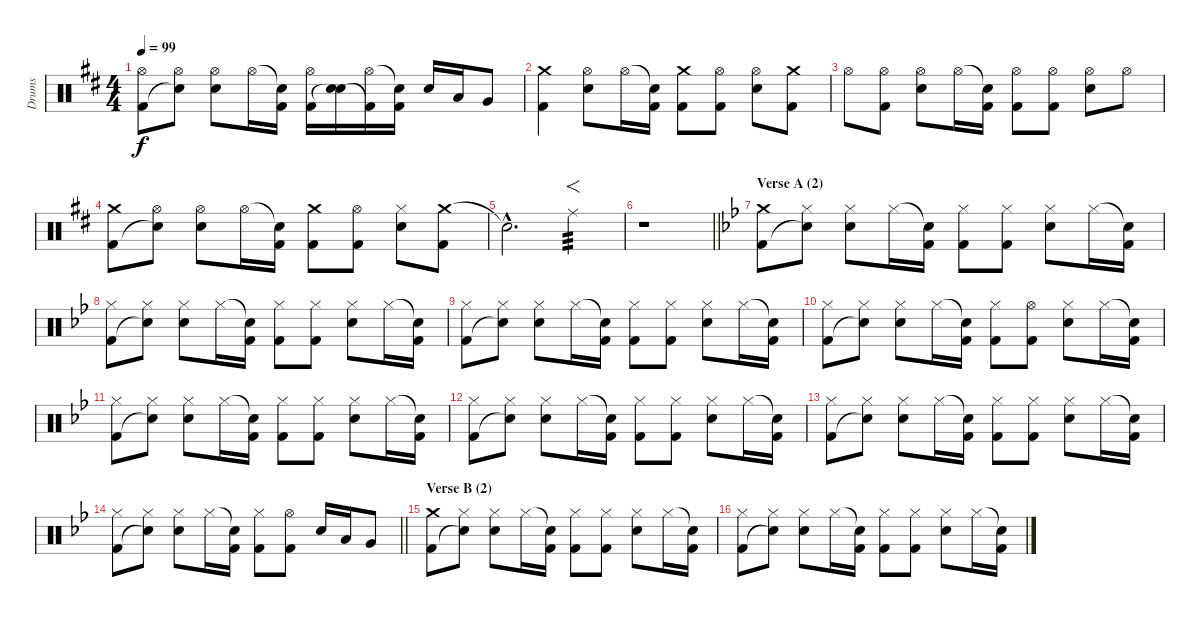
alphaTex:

\track ("Drums" "Drums") {instrument percussion}
\staff {score}
\articulation defaults
\ts (4 4)
\tempo 99
\clef neutral
\ks d
("Hi-Hat (open)" "Kick (hit) 2").8{dy f} ("Hi-Hat (open)" "Snare (hit)"{t}).8 ("Hi-Hat (open)" "Electric Snare (hit)").8 "Hi-Hat (open)".16 ("Snare (hit)"{t} "Kick (hit) 2").16 ("Hi-Hat (open)" "Kick (hit) 2").16 ("Electric Snare (hit)" "Snare (hit)"{t}).16 ("Hi-Hat (open)" "Kick (hit) 2"{t}).16 ("Snare (hit)"{t} "Kick (hit) 2").16 "Electric Snare (hit)".16 "Low Tom (hit)".16 "Very Low Tom (hit)".8 |
("Crash medium (hit)" "Kick (hit) 2").4 ("Hi-Hat (open)" "Electric Snare (hit)").8 "Hi-Hat (open)".16 ("Snare (hit)"{t} "Kick (hit) 2").16 ("Crash medium (hit)" "Kick (hit) 2").8 ("Hi-Hat (open)" "Kick (hit) 2").8 ("Hi-Hat (open)" "Electric Snare (hit)").8 ("Crash medium (hit)" "Kick (hit) 2").8 |
"Hi-Hat (open)".8 ("Hi-Hat (open)" "Kick (hit) 2").8 ("Hi-Hat (open)" "Electric Snare (hit)").8 "Hi-Hat (open)".16 ("Snare (hit)"{t} "Kick (hit) 2").16 ("Hi-Hat (open)" "Kick (hit) 2").8 ("Hi-Hat (open)" "Kick (hit) 2").8 ("Hi-Hat (open)" "Electric Snare (hit)").8 "Hi-Hat (open)".8 |
("Crash medium (hit)" "Kick (hit) 2").8 ("Hi-Hat (open)" "Snare (hit)"{t}).8 ("Hi-Hat (open)" "Electric Snare (hit)").8 "Hi-Hat (open)".16 ("Snare (hit)"{t} "Kick (hit) 2").16 ("Crash medium (hit)" "Kick (hit) 2").8 ("Hi-Hat (open)" "Kick (hit) 2").8 ("Hi-Hat (closed)" "Electric Snare (hit)").8 ("Crash medium (hit)" "Kick (hit) 2").8 |
"Snare (hit)"{hac t}.2{d} "Ride (middle)".4{f tp 3} |
\barLineRight lightlight
r.1 |
\section ("" "Verse A (2)")
\ks gminor
("Crash medium (hit)" "Kick (hit) 2").8 ("Hi-Hat (closed)" "Snare (hit)"{t}).8 ("Hi-Hat (closed)" "Electric Snare (hit)").8 "Hi-Hat (closed)".16 ("Snare (hit)"{t} "Kick (hit) 2").16 ("Hi-Hat (closed)" "Kick (hit) 2").8 ("Hi-Hat (closed)" "Kick (hit) 2").8 ("Hi-Hat (closed)" "Electric Snare (hit)").8 "Hi-Hat (closed)".16 ("Snare (hit)"{t} "Kick (hit) 2").16 |
("Hi-Hat (closed)" "Kick (hit) 2").8 ("Hi-Hat (closed)" "Snare (hit)"{t}).8 ("Hi-Hat (closed)" "Electric Snare (hit)").8 "Hi-Hat (closed)".16 ("Snare (hit)"{t} "Kick (hit) 2").16 ("Hi-Hat (closed)" "Kick (hit) 2").8 ("Hi-Hat (closed)" "Kick (hit) 2").8 ("Hi-Hat (closed)" "Electric Snare (hit)").8 "Hi-Hat (closed)".16 ("Snare (hit)"{t} "Kick (hit) 2").16 |
("Hi-Hat (closed)" "Kick (hit) 2").8 ("Hi-Hat (closed)" "Snare (hit)"{t}).8 ("Hi-Hat (closed)" "Electric Snare (hit)").8 "Hi-Hat (closed)".16 ("Snare (hit)"{t} "Kick (hit) 2").16 ("Hi-Hat (closed)" "Kick (hit) 2").8 ("Hi-Hat (closed)" "Kick (hit) 2").8 ("Hi-Hat (closed)" "Electric Snare (hit)").8 "Hi-Hat (closed)".16 ("Snare (hit)"{t} "Kick (hit) 2").16 |
("Hi-Hat (closed)" "Kick (hit) 2").8 ("Hi-Hat (closed)" "Snare (hit)"{t}).8 ("Hi-Hat (closed)" "Electric Snare (hit)").8 "Hi-Hat (closed)".16 ("Snare (hit)"{t} "Kick (hit) 2").16 ("Hi-Hat (closed)" "Kick (hit) 2").8 ("Hi-Hat (open)" "Kick (hit) 2").8 ("Hi-Hat (closed)" "Electric Snare (hit)").8 "Hi-Hat (closed)".16 ("Snare (hit)"{t} "Kick (hit) 2").16 |
("Hi-Hat (closed)" "Kick (hit) 2").8 ("Hi-Hat (closed)" "Snare (hit)"{t}).8 ("Hi-Hat (closed)" "Electric Snare (hit)").8 "Hi-Hat (closed)".16 ("Snare (hit)"{t} "Kick (hit) 2").16 ("Hi-Hat (closed)" "Kick (hit) 2").8 ("Hi-Hat (closed)" "Kick (hit) 2").8 ("Hi-Hat (closed)" "Electric Snare (hit)").8 "Hi-Hat (closed)".16 ("Snare (hit)"{t} "Kick (hit) 2").16 |
("Hi-Hat (closed)" "Kick (hit) 2").8 ("Hi-Hat (closed)" "Snare (hit)"{t}).8 ("Hi-Hat (closed)" "Electric Snare (hit)").8 "Hi-Hat (closed)".16 ("Snare (hit)"{t} "Kick (hit) 2").16 ("Hi-Hat (closed)" "Kick (hit) 2").8 ("Hi-Hat (closed)" "Kick (hit) 2").8 ("Hi-Hat (closed)" "Electric Snare (hit)").8 "Hi-Hat (closed)".16 ("Snare (hit)"{t} "Kick (hit) 2").16 |
("Hi-Hat (closed)" "Kick (hit) 2").8 ("Hi-Hat (closed)" "Snare (hit)"{t}).8 ("Hi-Hat (closed)" "Electric Snare (hit)").8 "Hi-Hat (closed)".16 ("Snare (hit)"{t} "Kick (hit) 2").16 ("Hi-Hat (closed)" "Kick (hit) 2").8 ("Hi-Hat (closed)" "Kick (hit) 2").8 ("Hi-Hat (closed)" "Electric Snare (hit)").8 "Hi-Hat (closed)".16 ("Snare (hit)"{t} "Kick (hit) 2").16 |
\barLineRight lightlight
("Hi-Hat (closed)" "Kick (hit) 2").8 ("Hi-Hat (closed)" "Snare (hit)"{t}).8 ("Hi-Hat (closed)" "Electric Snare (hit)").8 "Hi-Hat (closed)".16 ("Snare (hit)"{t} "Kick (hit) 2").16 ("Hi-Hat (closed)" "Kick (hit) 2").8 ("Hi-Hat (open)" "Kick (hit) 2").8 "Electric Snare (hit)".16 "Low Tom (hit)".16 "Very Low Tom (hit)".8 |
\section ("" "Verse B (2)")
("Crash medium (hit)" "Kick (hit) 2").8 ("Hi-Hat (closed)" "Snare (hit)"{t}).8 ("Hi-Hat (closed)" "Electric Snare (hit)").8 "Hi-Hat (closed)".16 ("Snare (hit)"{t} "Kick (hit) 2").16 ("Hi-Hat (closed)" "Kick (hit) 2").8 ("Hi-Hat (closed)" "Kick (hit) 2").8 ("Hi-Hat (closed)" "Electric Snare (hit)").8 "Hi-Hat (closed)".16 ("Snare (hit)"{t} "Kick (hit) 2").16 |
("Hi-Hat (closed)" "Kick (hit) 2").8 ("Hi-Hat (closed)" "Snare (hit)"{t}).8 ("Hi-Hat (closed)" "Electric Snare (hit)").8 "Hi-Hat (closed)".16 ("Snare (hit)"{t} "Kick (hit) 2").16 ("Hi-Hat (closed)" "Kick (hit) 2").8 ("Hi-Hat (closed)" "Kick (hit) 2").8 ("Hi-Hat (closed)" "Electric Snare (hit)").8 "Hi-Hat (closed)".16 ("Snare (hit)"{t} "Kick (hit) 2").16
